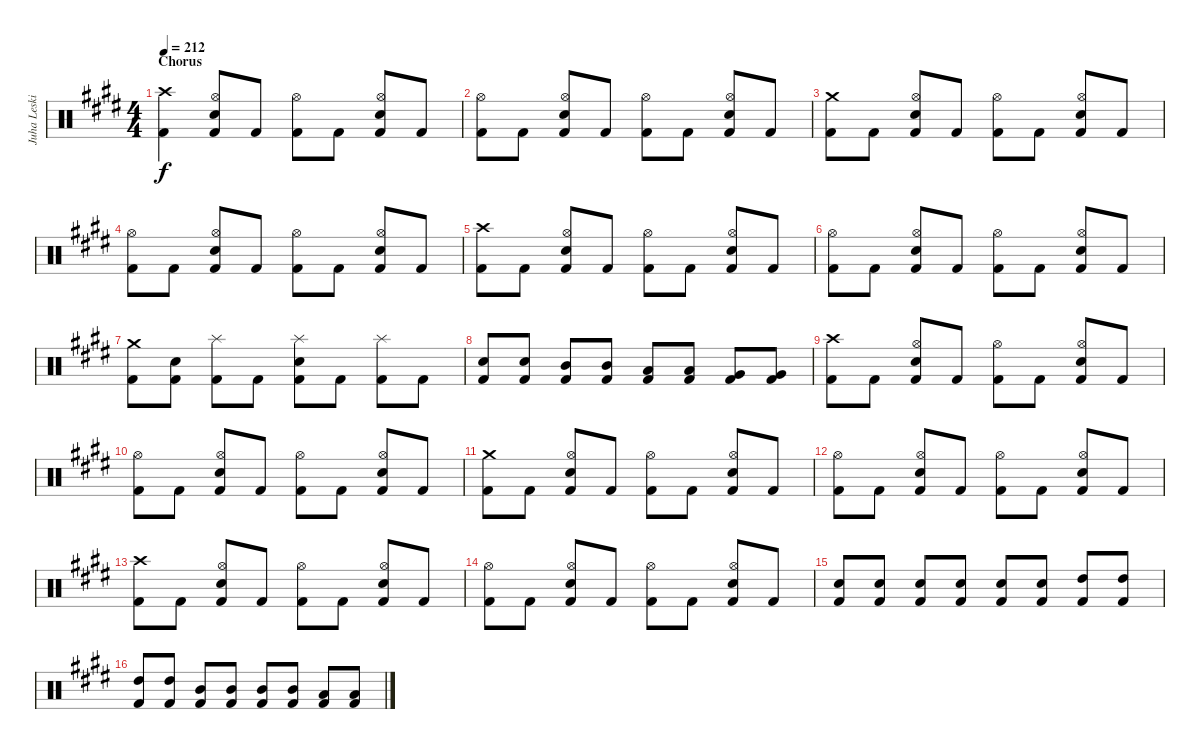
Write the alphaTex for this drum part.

\track ("Juha Leskinen - Drums" "Juha Leski") {instrument percussion}
\staff {score}
\articulation defaults
\ts (4 4)
\section ("" "Chorus ")
\tempo 212
\clef neutral
\ks c#minor
("Crash high (hit)" "Kick (hit) 2").4{dy f} ("Hi-Hat (open)" "Electric Snare (hit)" "Kick (hit) 2").8 "Kick (hit) 2".8 ("Hi-Hat (open)" "Kick (hit) 2").8 "Kick (hit) 2".8 ("Hi-Hat (open)" "Electric Snare (hit)" "Kick (hit) 2").8 "Kick (hit) 2".8 |
("Hi-Hat (open)" "Kick (hit) 2").8 "Kick (hit) 2".8 ("Hi-Hat (open)" "Electric Snare (hit)" "Kick (hit) 2").8 "Kick (hit) 2".8 ("Hi-Hat (open)" "Kick (hit) 2").8 "Kick (hit) 2".8 ("Hi-Hat (open)" "Electric Snare (hit)" "Kick (hit) 2").8 "Kick (hit) 2".8 |
("Crash medium (hit)" "Kick (hit) 2").8 "Kick (hit) 2".8 ("Hi-Hat (open)" "Electric Snare (hit)" "Kick (hit) 2").8 "Kick (hit) 2".8 ("Hi-Hat (open)" "Kick (hit) 2").8 "Kick (hit) 2".8 ("Hi-Hat (open)" "Electric Snare (hit)" "Kick (hit) 2").8 "Kick (hit) 2".8 |
("Hi-Hat (open)" "Kick (hit) 2").8 "Kick (hit) 2".8 ("Hi-Hat (open)" "Electric Snare (hit)" "Kick (hit) 2").8 "Kick (hit) 2".8 ("Hi-Hat (open)" "Kick (hit) 2").8 "Kick (hit) 2".8 ("Hi-Hat (open)" "Electric Snare (hit)" "Kick (hit) 2").8 "Kick (hit) 2".8 |
("Crash high (hit)" "Kick (hit) 2").8 "Kick (hit) 2".8 ("Hi-Hat (open)" "Electric Snare (hit)" "Kick (hit) 2").8 "Kick (hit) 2".8 ("Hi-Hat (open)" "Kick (hit) 2").8 "Kick (hit) 2".8 ("Hi-Hat (open)" "Electric Snare (hit)" "Kick (hit) 2").8 "Kick (hit) 2".8 |
("Hi-Hat (open)" "Kick (hit) 2").8 "Kick (hit) 2".8 ("Hi-Hat (open)" "Electric Snare (hit)" "Kick (hit) 2").8 "Kick (hit) 2".8 ("Hi-Hat (open)" "Kick (hit) 2").8 "Kick (hit) 2".8 ("Hi-Hat (open)" "Electric Snare (hit)" "Kick (hit) 2").8 "Kick (hit) 2".8 |
("Crash medium (hit)" "Kick (hit) 2").8 ("Electric Snare (hit)" "Kick (hit) 2").8 ("Splash (hit)" "Kick (hit) 2").8 "Kick (hit) 2".8 ("Splash (hit)" "Electric Snare (hit)" "Kick (hit) 2").8 "Kick (hit) 2".8 ("Splash (hit)" "Kick (hit) 2").8 "Kick (hit) 2".8 |
("Electric Snare (hit)" "Kick (hit) 2").8 ("Electric Snare (hit)" "Kick (hit) 2").8 ("Mid Tom (hit)" "Kick (hit) 2").8 ("Mid Tom (hit)" "Kick (hit) 2").8 ("Low Tom (hit)" "Kick (hit) 2").8 ("Low Tom (hit)" "Kick (hit) 2").8 ("Very Low Tom (hit)" "Kick (hit) 2").8 ("Very Low Tom (hit)" "Kick (hit) 2").8 |
("Crash high (hit)" "Kick (hit) 2").8 "Kick (hit) 2".8 ("Hi-Hat (open)" "Electric Snare (hit)" "Kick (hit) 2").8 "Kick (hit) 2".8 ("Hi-Hat (open)" "Kick (hit) 2").8 "Kick (hit) 2".8 ("Hi-Hat (open)" "Electric Snare (hit)" "Kick (hit) 2").8 "Kick (hit) 2".8 |
("Hi-Hat (open)" "Kick (hit) 2").8 "Kick (hit) 2".8 ("Hi-Hat (open)" "Electric Snare (hit)" "Kick (hit) 2").8 "Kick (hit) 2".8 ("Hi-Hat (open)" "Kick (hit) 2").8 "Kick (hit) 2".8 ("Hi-Hat (open)" "Electric Snare (hit)" "Kick (hit) 2").8 "Kick (hit) 2".8 |
("Crash medium (hit)" "Kick (hit) 2").8 "Kick (hit) 2".8 ("Hi-Hat (open)" "Electric Snare (hit)" "Kick (hit) 2").8 "Kick (hit) 2".8 ("Hi-Hat (open)" "Kick (hit) 2").8 "Kick (hit) 2".8 ("Hi-Hat (open)" "Electric Snare (hit)" "Kick (hit) 2").8 "Kick (hit) 2".8 |
("Hi-Hat (open)" "Kick (hit) 2").8 "Kick (hit) 2".8 ("Hi-Hat (open)" "Electric Snare (hit)" "Kick (hit) 2").8 "Kick (hit) 2".8 ("Hi-Hat (open)" "Kick (hit) 2").8 "Kick (hit) 2".8 ("Hi-Hat (open)" "Electric Snare (hit)" "Kick (hit) 2").8 "Kick (hit) 2".8 |
("Crash high (hit)" "Kick (hit) 2").8 "Kick (hit) 2".8 ("Hi-Hat (open)" "Electric Snare (hit)" "Kick (hit) 2").8 "Kick (hit) 2".8 ("Hi-Hat (open)" "Kick (hit) 2").8 "Kick (hit) 2".8 ("Hi-Hat (open)" "Electric Snare (hit)" "Kick (hit) 2").8 "Kick (hit) 2".8 |
("Hi-Hat (open)" "Kick (hit) 2").8 "Kick (hit) 2".8 ("Hi-Hat (open)" "Electric Snare (hit)" "Kick (hit) 2").8 "Kick (hit) 2".8 ("Hi-Hat (open)" "Kick (hit) 2").8 "Kick (hit) 2".8 ("Hi-Hat (open)" "Electric Snare (hit)" "Kick (hit) 2").8 "Kick (hit) 2".8 |
("Electric Snare (hit)" "Kick (hit) 2").8 ("Electric Snare (hit)" "Kick (hit) 2").8 ("Electric Snare (hit)" "Kick (hit) 2").8 ("Electric Snare (hit)" "Kick (hit) 2").8 ("Electric Snare (hit)" "Kick (hit) 2").8 ("Electric Snare (hit)" "Kick (hit) 2").8 ("High Tom (hit)" "Kick (hit) 2").8 ("High Tom (hit)" "Kick (hit) 2").8 |
("High Tom (hit)" "Kick (hit) 2").8 ("High Tom (hit)" "Kick (hit) 2").8 ("Mid Tom (hit)" "Kick (hit) 2").8 ("Mid Tom (hit)" "Kick (hit) 2").8 ("Mid Tom (hit)" "Kick (hit) 2").8 ("Mid Tom (hit)" "Kick (hit) 2").8 ("Low Tom (hit)" "Kick (hit) 2").8 ("Low Tom (hit)" "Kick (hit) 2").8
